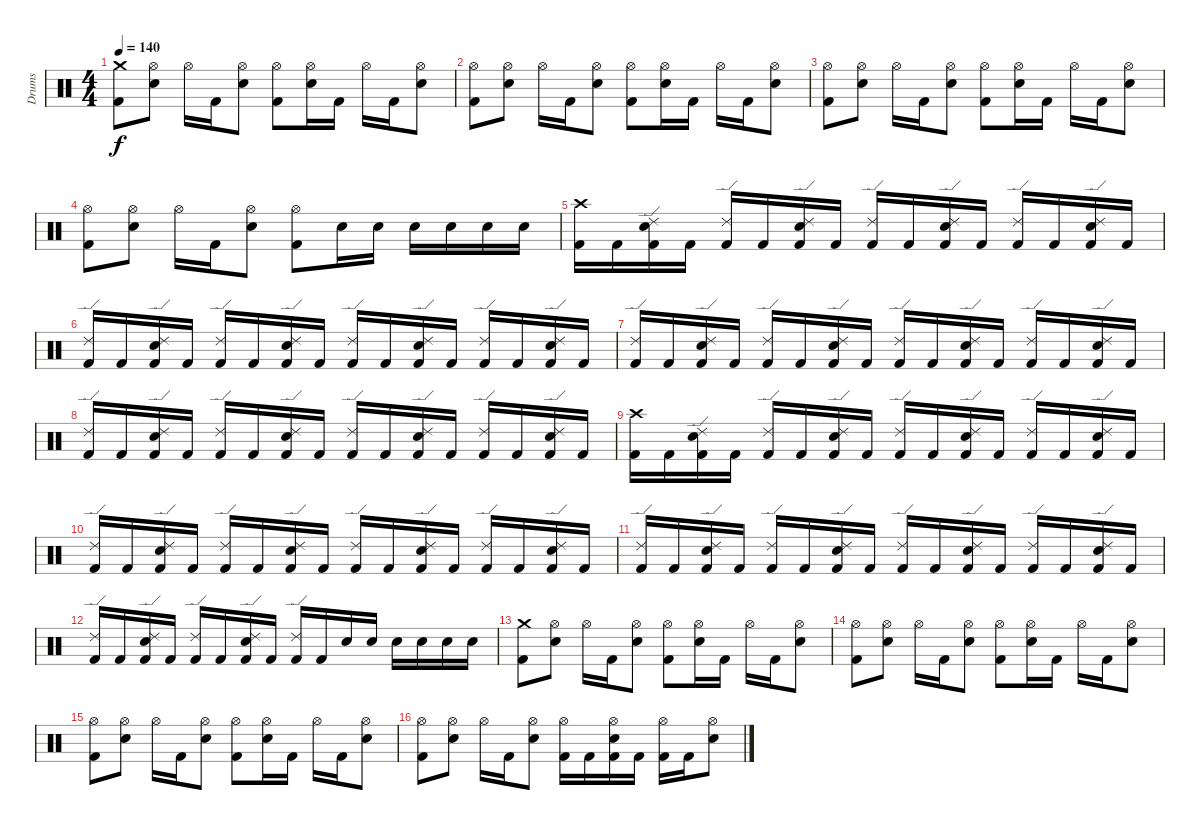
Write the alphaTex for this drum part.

\track ("Drums" "Drums") {instrument percussion}
\staff {score}
\articulation defaults
\ts (4 4)
\tempo 140
\clef neutral
\ks c
("Crash medium (hit)" "Kick (hit) 2").8{dy f} ("Hi-Hat (open)" "Electric Snare (hit)").8 "Hi-Hat (open)".16 "Kick (hit) 2".16 ("Hi-Hat (open)" "Electric Snare (hit)").8 ("Hi-Hat (open)" "Kick (hit) 2").8 ("Hi-Hat (open)" "Electric Snare (hit)").16 "Kick (hit) 2".16 "Hi-Hat (open)".16 "Kick (hit) 2".16 ("Hi-Hat (open)" "Electric Snare (hit)").8 |
("Hi-Hat (open)" "Kick (hit) 2").8 ("Hi-Hat (open)" "Electric Snare (hit)").8 "Hi-Hat (open)".16 "Kick (hit) 2".16 ("Hi-Hat (open)" "Electric Snare (hit)").8 ("Hi-Hat (open)" "Kick (hit) 2").8 ("Hi-Hat (open)" "Electric Snare (hit)").16 "Kick (hit) 2".16 "Hi-Hat (open)".16 "Kick (hit) 2".16 ("Hi-Hat (open)" "Electric Snare (hit)").8 |
("Hi-Hat (open)" "Kick (hit) 2").8 ("Hi-Hat (open)" "Electric Snare (hit)").8 "Hi-Hat (open)".16 "Kick (hit) 2".16 ("Hi-Hat (open)" "Electric Snare (hit)").8 ("Hi-Hat (open)" "Kick (hit) 2").8 ("Hi-Hat (open)" "Electric Snare (hit)").16 "Kick (hit) 2".16 "Hi-Hat (open)".16 "Kick (hit) 2".16 ("Hi-Hat (open)" "Electric Snare (hit)").8 |
("Hi-Hat (open)" "Kick (hit) 2").8 ("Hi-Hat (open)" "Electric Snare (hit)").8 "Hi-Hat (open)".16 "Kick (hit) 2".16 ("Hi-Hat (open)" "Electric Snare (hit)").8 ("Hi-Hat (open)" "Kick (hit) 2").8 "Electric Snare (hit)".16 "Electric Snare (hit)".16 "Electric Snare (hit)".16 "Electric Snare (hit)".16 "Electric Snare (hit)".16 "Electric Snare (hit)".16 |
("Crash high (hit)" "Kick (hit) 2").16 "Kick (hit) 2".16 ("Ride (edge) 2" "Electric Snare (hit)" "Kick (hit) 2").16 "Kick (hit) 2".16 ("Ride (edge) 2" "Kick (hit) 2").16 "Kick (hit) 2".16 ("Ride (edge) 2" "Electric Snare (hit)" "Kick (hit) 2").16 "Kick (hit) 2".16 ("Ride (edge) 2" "Kick (hit) 2").16 "Kick (hit) 2".16 ("Ride (edge) 2" "Electric Snare (hit)" "Kick (hit) 2").16 "Kick (hit) 2".16 ("Ride (edge) 2" "Kick (hit) 2").16 "Kick (hit) 2".16 ("Ride (edge) 2" "Electric Snare (hit)" "Kick (hit) 2").16 "Kick (hit) 2".16 |
("Ride (edge) 2" "Kick (hit) 2").16 "Kick (hit) 2".16 ("Ride (edge) 2" "Electric Snare (hit)" "Kick (hit) 2").16 "Kick (hit) 2".16 ("Ride (edge) 2" "Kick (hit) 2").16 "Kick (hit) 2".16 ("Ride (edge) 2" "Electric Snare (hit)" "Kick (hit) 2").16 "Kick (hit) 2".16 ("Ride (edge) 2" "Kick (hit) 2").16 "Kick (hit) 2".16 ("Ride (edge) 2" "Electric Snare (hit)" "Kick (hit) 2").16 "Kick (hit) 2".16 ("Ride (edge) 2" "Kick (hit) 2").16 "Kick (hit) 2".16 ("Ride (edge) 2" "Electric Snare (hit)" "Kick (hit) 2").16 "Kick (hit) 2".16 |
("Ride (edge) 2" "Kick (hit) 2").16 "Kick (hit) 2".16 ("Ride (edge) 2" "Electric Snare (hit)" "Kick (hit) 2").16 "Kick (hit) 2".16 ("Ride (edge) 2" "Kick (hit) 2").16 "Kick (hit) 2".16 ("Ride (edge) 2" "Electric Snare (hit)" "Kick (hit) 2").16 "Kick (hit) 2".16 ("Ride (edge) 2" "Kick (hit) 2").16 "Kick (hit) 2".16 ("Ride (edge) 2" "Electric Snare (hit)" "Kick (hit) 2").16 "Kick (hit) 2".16 ("Ride (edge) 2" "Kick (hit) 2").16 "Kick (hit) 2".16 ("Ride (edge) 2" "Electric Snare (hit)" "Kick (hit) 2").16 "Kick (hit) 2".16 |
("Ride (edge) 2" "Kick (hit) 2").16 "Kick (hit) 2".16 ("Ride (edge) 2" "Electric Snare (hit)" "Kick (hit) 2").16 "Kick (hit) 2".16 ("Ride (edge) 2" "Kick (hit) 2").16 "Kick (hit) 2".16 ("Ride (edge) 2" "Electric Snare (hit)" "Kick (hit) 2").16 "Kick (hit) 2".16 ("Ride (edge) 2" "Kick (hit) 2").16 "Kick (hit) 2".16 ("Ride (edge) 2" "Electric Snare (hit)" "Kick (hit) 2").16 "Kick (hit) 2".16 ("Ride (edge) 2" "Kick (hit) 2").16 "Kick (hit) 2".16 ("Ride (edge) 2" "Electric Snare (hit)" "Kick (hit) 2").16 "Kick (hit) 2".16 |
("Crash high (hit)" "Kick (hit) 2").16 "Kick (hit) 2".16 ("Ride (edge) 2" "Electric Snare (hit)" "Kick (hit) 2").16 "Kick (hit) 2".16 ("Ride (edge) 2" "Kick (hit) 2").16 "Kick (hit) 2".16 ("Ride (edge) 2" "Electric Snare (hit)" "Kick (hit) 2").16 "Kick (hit) 2".16 ("Ride (edge) 2" "Kick (hit) 2").16 "Kick (hit) 2".16 ("Ride (edge) 2" "Electric Snare (hit)" "Kick (hit) 2").16 "Kick (hit) 2".16 ("Ride (edge) 2" "Kick (hit) 2").16 "Kick (hit) 2".16 ("Ride (edge) 2" "Electric Snare (hit)" "Kick (hit) 2").16 "Kick (hit) 2".16 |
("Ride (edge) 2" "Kick (hit) 2").16 "Kick (hit) 2".16 ("Ride (edge) 2" "Electric Snare (hit)" "Kick (hit) 2").16 "Kick (hit) 2".16 ("Ride (edge) 2" "Kick (hit) 2").16 "Kick (hit) 2".16 ("Ride (edge) 2" "Electric Snare (hit)" "Kick (hit) 2").16 "Kick (hit) 2".16 ("Ride (edge) 2" "Kick (hit) 2").16 "Kick (hit) 2".16 ("Ride (edge) 2" "Electric Snare (hit)" "Kick (hit) 2").16 "Kick (hit) 2".16 ("Ride (edge) 2" "Kick (hit) 2").16 "Kick (hit) 2".16 ("Ride (edge) 2" "Electric Snare (hit)" "Kick (hit) 2").16 "Kick (hit) 2".16 |
("Ride (edge) 2" "Kick (hit) 2").16 "Kick (hit) 2".16 ("Ride (edge) 2" "Electric Snare (hit)" "Kick (hit) 2").16 "Kick (hit) 2".16 ("Ride (edge) 2" "Kick (hit) 2").16 "Kick (hit) 2".16 ("Ride (edge) 2" "Electric Snare (hit)" "Kick (hit) 2").16 "Kick (hit) 2".16 ("Ride (edge) 2" "Kick (hit) 2").16 "Kick (hit) 2".16 ("Ride (edge) 2" "Electric Snare (hit)" "Kick (hit) 2").16 "Kick (hit) 2".16 ("Ride (edge) 2" "Kick (hit) 2").16 "Kick (hit) 2".16 ("Ride (edge) 2" "Electric Snare (hit)" "Kick (hit) 2").16 "Kick (hit) 2".16 |
("Ride (edge) 2" "Kick (hit) 2").16 "Kick (hit) 2".16 ("Ride (edge) 2" "Electric Snare (hit)" "Kick (hit) 2").16 "Kick (hit) 2".16 ("Ride (edge) 2" "Kick (hit) 2").16 "Kick (hit) 2".16 ("Ride (edge) 2" "Electric Snare (hit)" "Kick (hit) 2").16 "Kick (hit) 2".16 ("Ride (edge) 2" "Kick (hit) 2").16 "Kick (hit) 2".16 "Electric Snare (hit)".16 "Electric Snare (hit)".16 "Electric Snare (hit)".16 "Electric Snare (hit)".16 "Electric Snare (hit)".16 "Electric Snare (hit)".16 |
("Crash medium (hit)" "Kick (hit) 2").8 ("Hi-Hat (open)" "Electric Snare (hit)").8 "Hi-Hat (open)".16 "Kick (hit) 2".16 ("Hi-Hat (open)" "Electric Snare (hit)").8 ("Hi-Hat (open)" "Kick (hit) 2").8 ("Hi-Hat (open)" "Electric Snare (hit)").16 "Kick (hit) 2".16 "Hi-Hat (open)".16 "Kick (hit) 2".16 ("Hi-Hat (open)" "Electric Snare (hit)").8 |
("Hi-Hat (open)" "Kick (hit) 2").8 ("Hi-Hat (open)" "Electric Snare (hit)").8 "Hi-Hat (open)".16 "Kick (hit) 2".16 ("Hi-Hat (open)" "Electric Snare (hit)").8 ("Hi-Hat (open)" "Kick (hit) 2").8 ("Hi-Hat (open)" "Electric Snare (hit)").16 "Kick (hit) 2".16 "Hi-Hat (open)".16 "Kick (hit) 2".16 ("Hi-Hat (open)" "Electric Snare (hit)").8 |
("Hi-Hat (open)" "Kick (hit) 2").8 ("Hi-Hat (open)" "Electric Snare (hit)").8 "Hi-Hat (open)".16 "Kick (hit) 2".16 ("Hi-Hat (open)" "Electric Snare (hit)").8 ("Hi-Hat (open)" "Kick (hit) 2").8 ("Hi-Hat (open)" "Electric Snare (hit)").16 "Kick (hit) 2".16 "Hi-Hat (open)".16 "Kick (hit) 2".16 ("Hi-Hat (open)" "Electric Snare (hit)").8 |
("Hi-Hat (open)" "Kick (hit) 2").8 ("Hi-Hat (open)" "Electric Snare (hit)").8 "Hi-Hat (open)".16 "Kick (hit) 2".16 ("Hi-Hat (open)" "Electric Snare (hit)").8 ("Hi-Hat (open)" "Kick (hit) 2").16 "Kick (hit) 2".16 ("Hi-Hat (open)" "Electric Snare (hit)" "Kick (hit) 2").16 "Kick (hit) 2".16 ("Hi-Hat (open)" "Kick (hit) 2").16 "Kick (hit) 2".16 ("Hi-Hat (open)" "Electric Snare (hit)").8
